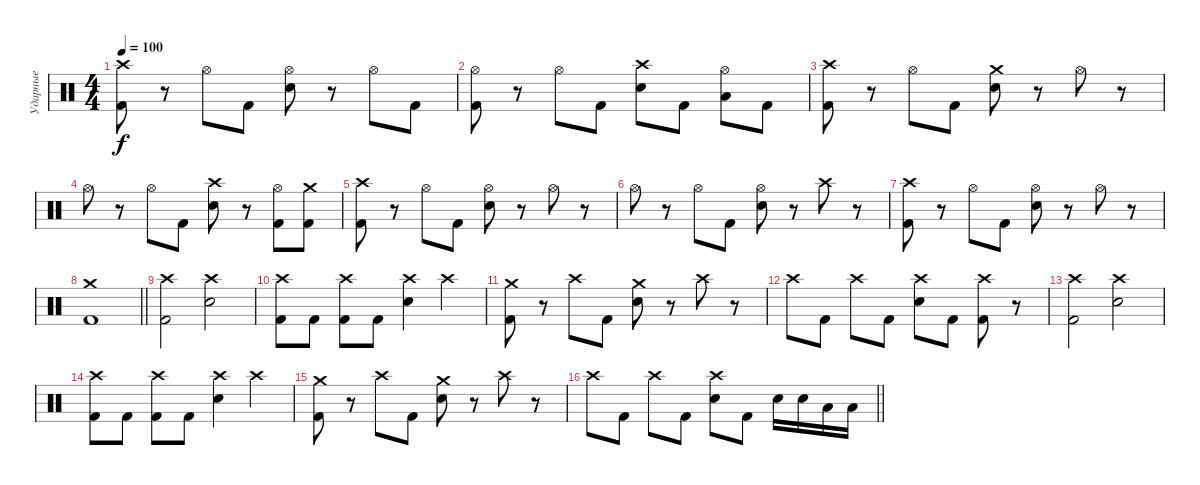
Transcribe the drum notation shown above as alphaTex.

\track ("Ударные" "Ударные") {instrument percussion}
\staff {score}
\articulation defaults
\ts (4 4)
\section ("" "")
\tempo 100
\clef neutral
\ks c
("Crash high (hit)" "Kick (hit) 2").8{dy f} r.8 "Hi-Hat (open)".8 "Kick (hit) 2".8 ("Hi-Hat (open)" "Electric Snare (hit)").8 r.8 "Hi-Hat (open)".8 "Kick (hit) 2".8 |
("Hi-Hat (open)" "Kick (hit) 2").8 r.8 "Hi-Hat (open)".8 "Kick (hit) 2".8 ("Crash high (hit)" "Electric Snare (hit)").8 "Kick (hit) 2".8 ("Hi-Hat (open)" "Low Floor Tom (hit)").8 "Kick (hit) 2".8 |
("Crash high (hit)" "Kick (hit) 2").8 r.8 "Hi-Hat (open)".8 "Kick (hit) 2".8 ("Crash medium (hit)" "Electric Snare (hit)").8 r.8 "Hi-Hat (open)".8 r.8 |
"Hi-Hat (open)".8 r.8 "Hi-Hat (open)".8 "Kick (hit) 2".8 ("Crash high (hit)" "Electric Snare (hit)").8 r.8 ("Hi-Hat (open)" "Kick (hit) 2").8 ("Crash medium (hit)" "Kick (hit) 2").8 |
("Crash high (hit)" "Kick (hit) 2").8 r.8 "Hi-Hat (open)".8 "Kick (hit) 2".8 ("Hi-Hat (open)" "Electric Snare (hit)").8 r.8 "Hi-Hat (open)".8 r.8 |
"Hi-Hat (open)".8 r.8 "Hi-Hat (open)".8 "Kick (hit) 2".8 ("Hi-Hat (open)" "Electric Snare (hit)").8 r.8 "Crash high (hit)".8 r.8 |
("Crash high (hit)" "Kick (hit) 2").8 r.8 "Hi-Hat (open)".8 "Kick (hit) 2".8 ("Hi-Hat (open)" "Electric Snare (hit)").8 r.8 "Hi-Hat (open)".8 r.8 |
\barLineRight lightlight
("Crash medium (hit)" "Kick (hit) 2").1 |
\section ("" "")
("Crash high (hit)" "Kick (hit) 2").2 ("Crash high (hit)" "Electric Snare (hit)").2 |
("Crash high (hit)" "Kick (hit) 2").8 "Kick (hit) 2".8 ("Crash high (hit)" "Kick (hit) 2").8 "Kick (hit) 2".8 ("Crash high (hit)" "Electric Snare (hit)").4 "Crash high (hit)".4 |
("Crash medium (hit)" "Kick (hit) 2").8 r.8 "Crash high (hit)".8 "Kick (hit) 2".8 ("Crash medium (hit)" "Electric Snare (hit)").8 r.8 "Crash high (hit)".8 r.8 |
"Crash high (hit)".8 "Kick (hit) 2".8 "Crash high (hit)".8 "Kick (hit) 2".8 ("Crash high (hit)" "Electric Snare (hit)").8 "Kick (hit) 2".8 ("Crash high (hit)" "Kick (hit) 2").8 r.8 |
("Crash high (hit)" "Kick (hit) 2").2 ("Crash high (hit)" "Electric Snare (hit)").2 |
("Crash high (hit)" "Kick (hit) 2").8 "Kick (hit) 2".8 ("Crash high (hit)" "Kick (hit) 2").8 "Kick (hit) 2".8 ("Crash high (hit)" "Electric Snare (hit)").4 "Crash high (hit)".4 |
("Crash medium (hit)" "Kick (hit) 2").8 r.8 "Crash high (hit)".8 "Kick (hit) 2".8 ("Crash medium (hit)" "Electric Snare (hit)").8 r.8 "Crash high (hit)".8 r.8 |
\barLineRight lightlight "Crash high (hit)".8 "Kick (hit) 2".8 "Crash high (hit)".8 "Kick (hit) 2".8
("Crash high (hit)" "Electric Snare (hit)").8 "Kick (hit) 2".8 "Electric Snare (hit)".16 "Electric Snare (hit)".16 "Low Tom (hit)".16 "Low Tom (hit)".16
